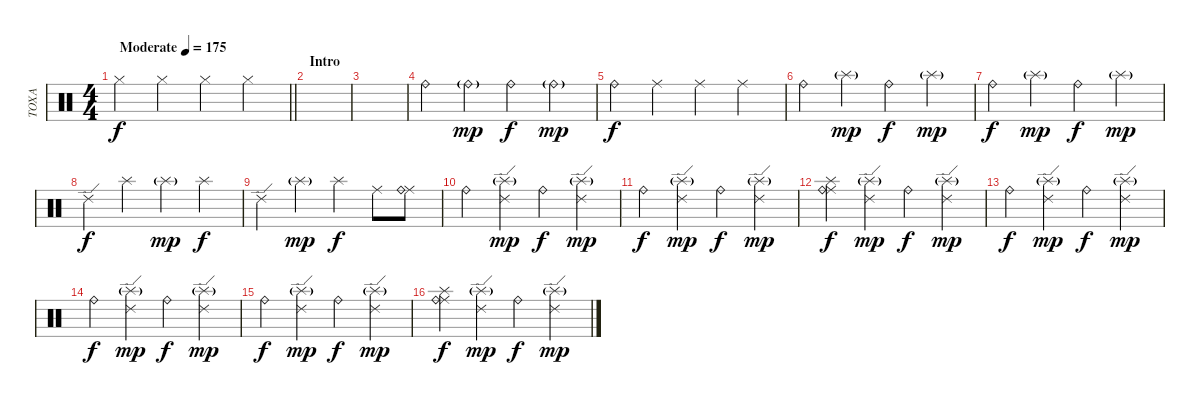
\track ("TOXA" "TOXA") {instrument percussion}
\staff {score}
\articulation defaults
\ts (4 4)
\tempo (175 "Moderate")
\clef neutral
\barLineRight lightlight
\ks c "Hi-Hat (closed)".4{dy f} "Hi-Hat (closed)".4 "Hi-Hat (closed)".4 "Hi-Hat (closed)".4
|
\section ("" "Intro")
|
|
"Ride (bell)".4 "Ride (bell)"{g}.4{dy mp} "Ride (bell)".4{dy f} "Ride (bell)"{g}.4{dy mp} |
"Ride (bell)".4{dy f} "Ride (middle)".4 "Ride (middle)".4 "Ride (middle)".4 |
"Ride (bell)".4 "Splash (hit)"{g}.4{dy mp} "Ride (bell)".4{dy f} "Splash (hit)"{g}.4{dy mp} |
"Ride (bell)".4{dy f} "Splash (hit)"{g}.4{dy mp} "Ride (bell)".4{dy f} "Splash (hit)"{g}.4{dy mp} |
"Ride (edge) 2".4{dy f} "Splash (hit)".4 "Splash (hit)"{g}.4{dy mp} "Splash (hit)".4{dy f} |
"Ride (edge) 2".4 "Splash (hit)"{g}.4{dy mp} "Splash (hit)".4{dy f} "Ride (middle)".8 ("Ride (middle)" "Ride (bell)").8 |
"Ride (bell)".4 ("Ride (edge) 2" "Splash (hit)"{g}).4{dy mp} "Ride (bell)".4{dy f} ("Ride (edge) 2" "Splash (hit)"{g}).4{dy mp} |
"Ride (bell)".4{dy f} ("Ride (edge) 2" "Splash (hit)"{g}).4{dy mp} "Ride (bell)".4{dy f} ("Ride (edge) 2" "Splash (hit)"{g}).4{dy mp} |
("Ride (middle)" "Splash (hit)" "Ride (bell)").4{dy f} ("Ride (edge) 2" "Splash (hit)"{g}).4{dy mp} "Ride (bell)".4{dy f} ("Ride (edge) 2" "Splash (hit)"{g}).4{dy mp} |
"Ride (bell)".4{dy f} ("Ride (edge) 2" "Splash (hit)"{g}).4{dy mp} "Ride (bell)".4{dy f} ("Ride (edge) 2" "Splash (hit)"{g}).4{dy mp} |
"Ride (bell)".4{dy f} ("Ride (edge) 2" "Splash (hit)"{g}).4{dy mp} "Ride (bell)".4{dy f} ("Ride (edge) 2" "Splash (hit)"{g}).4{dy mp} |
"Ride (bell)".4{dy f} ("Ride (edge) 2" "Splash (hit)"{g}).4{dy mp} "Ride (bell)".4{dy f} ("Ride (edge) 2" "Splash (hit)"{g}).4{dy mp} |
("Ride (middle)" "Splash (hit)" "Ride (bell)").4{dy f} ("Ride (edge) 2" "Splash (hit)"{g}).4{dy mp} "Ride (bell)".4{dy f} ("Ride (edge) 2" "Splash (hit)"{g}).4{dy mp}
